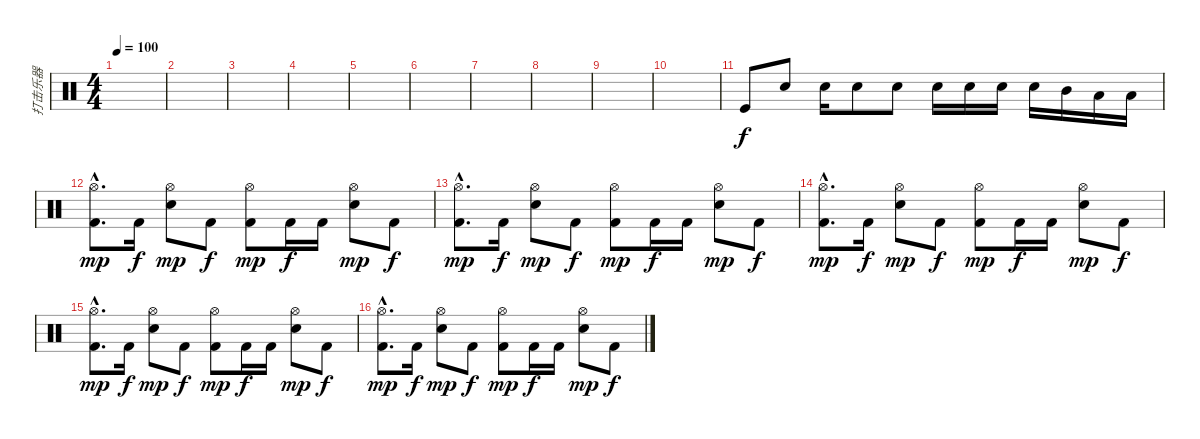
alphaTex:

\track ("打击乐器" "打击乐器") {instrument percussion}
\staff {score}
\articulation defaults
\ts (4 4)
\tempo 100
\clef neutral
\ks c
|
|
|
|
|
|
|
|
|
|
"Kick (hit)".8 "Electric Snare (hit)".8 "Electric Snare (hit)".16 "Electric Snare (hit)".8 "Electric Snare (hit)".8 "Electric Snare (hit)".16 "Electric Snare (hit)".16 "Electric Snare (hit)".16 "Electric Snare (hit)".16 "Mid Tom (hit)".16 "Low Tom (hit)".16 "Low Floor Tom (hit)".16 |
("Kick (hit) 2"{hac} "Hi-Hat (open)"{hac}).8{d dy mp} "Kick (hit) 2".16{dy f} ("Electric Snare (hit)" "Hi-Hat (open)").8{dy mp} "Kick (hit) 2".8{dy f} ("Kick (hit) 2" "Hi-Hat (open)").8{dy mp} "Kick (hit) 2".16{dy f} "Kick (hit) 2".16 ("Electric Snare (hit)" "Hi-Hat (open)").8{dy mp} "Kick (hit) 2".8{dy f} |
("Kick (hit) 2"{hac} "Hi-Hat (open)"{hac}).8{d dy mp} "Kick (hit) 2".16{dy f} ("Electric Snare (hit)" "Hi-Hat (open)").8{dy mp} "Kick (hit) 2".8{dy f} ("Kick (hit) 2" "Hi-Hat (open)").8{dy mp} "Kick (hit) 2".16{dy f} "Kick (hit) 2".16 ("Electric Snare (hit)" "Hi-Hat (open)").8{dy mp} "Kick (hit) 2".8{dy f} |
("Kick (hit) 2"{hac} "Hi-Hat (open)"{hac}).8{d dy mp} "Kick (hit) 2".16{dy f} ("Electric Snare (hit)" "Hi-Hat (open)").8{dy mp} "Kick (hit) 2".8{dy f} ("Kick (hit) 2" "Hi-Hat (open)").8{dy mp} "Kick (hit) 2".16{dy f} "Kick (hit) 2".16 ("Electric Snare (hit)" "Hi-Hat (open)").8{dy mp} "Kick (hit) 2".8{dy f} |
("Kick (hit) 2"{hac} "Hi-Hat (open)"{hac}).8{d dy mp} "Kick (hit) 2".16{dy f} ("Electric Snare (hit)" "Hi-Hat (open)").8{dy mp} "Kick (hit) 2".8{dy f} ("Kick (hit) 2" "Hi-Hat (open)").8{dy mp} "Kick (hit) 2".16{dy f} "Kick (hit) 2".16 ("Electric Snare (hit)" "Hi-Hat (open)").8{dy mp} "Kick (hit) 2".8{dy f} |
("Kick (hit) 2"{hac} "Hi-Hat (open)"{hac}).8{d dy mp} "Kick (hit) 2".16{dy f} ("Electric Snare (hit)" "Hi-Hat (open)").8{dy mp} "Kick (hit) 2".8{dy f} ("Kick (hit) 2" "Hi-Hat (open)").8{dy mp} "Kick (hit) 2".16{dy f} "Kick (hit) 2".16 ("Electric Snare (hit)" "Hi-Hat (open)").8{dy mp} "Kick (hit) 2".8{dy f}
